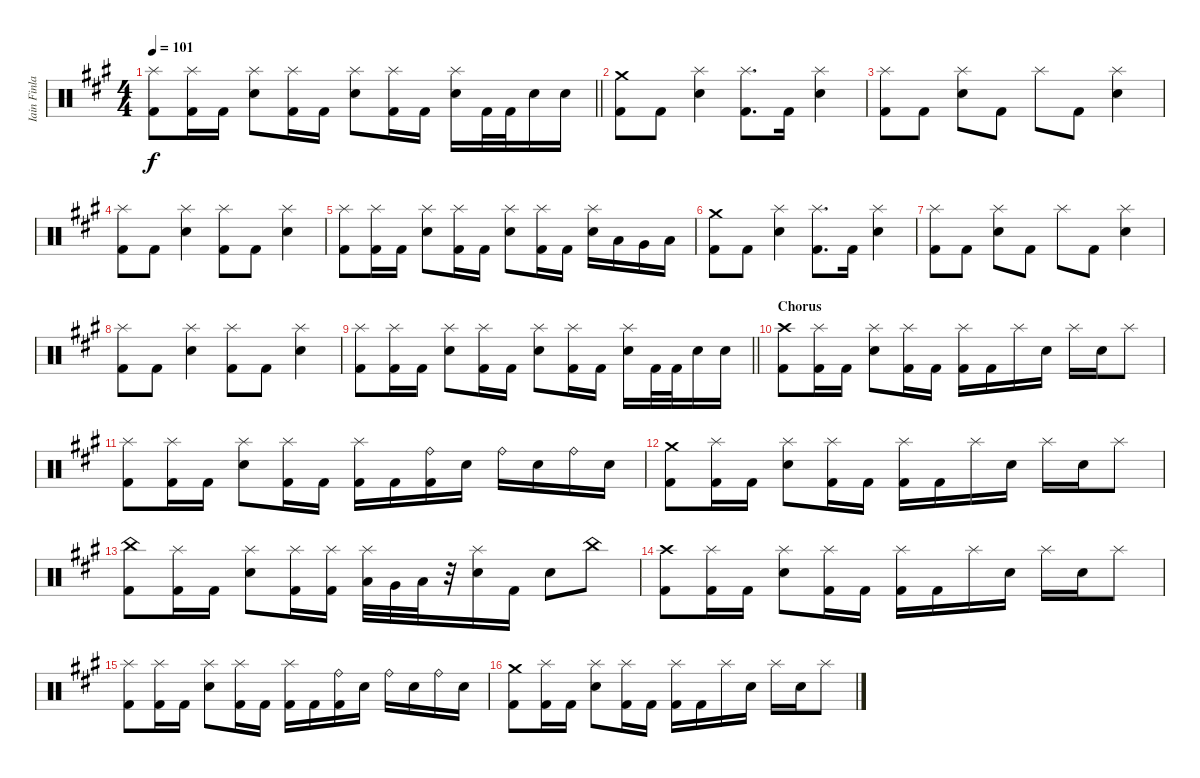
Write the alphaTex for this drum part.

\track ("Iain Finlay" "Iain Finla") {instrument percussion}
\staff {score}
\articulation defaults
\ts (4 4)
\tempo 101
\clef neutral
\barLineRight lightlight
\ks f#minor
("Splash (hit)" "Kick (hit) 2").8{dy f} ("Splash (hit)" "Kick (hit) 2").16 "Kick (hit) 2".16 ("Splash (hit)" "Snare (hit) 2").8 ("Splash (hit)" "Kick (hit) 2").16 "Kick (hit) 2".16 ("Splash (hit)" "Snare (hit) 2").8 ("Splash (hit)" "Kick (hit) 2").16 "Kick (hit) 2".16 ("Splash (hit)" "Snare (hit) 2").16 "Kick (hit) 2".32 "Kick (hit) 2".32 "Snare (hit) 2".16 "Snare (hit) 2".16 |
("Crash medium (hit)" "Kick (hit) 2").8 "Kick (hit) 2".8 ("Splash (hit)" "Snare (hit) 2").4 ("Splash (hit)" "Kick (hit) 2").8{d} "Kick (hit) 2".16 ("Splash (hit)" "Snare (hit) 2").4 |
("Splash (hit)" "Kick (hit) 2").8 "Kick (hit) 2".8 ("Splash (hit)" "Snare (hit) 2").8 "Kick (hit) 2".8 "Splash (hit)".8 "Kick (hit) 2".8 ("Splash (hit)" "Snare (hit) 2").4 |
("Splash (hit)" "Kick (hit) 2").8 "Kick (hit) 2".8 ("Splash (hit)" "Snare (hit) 2").4 ("Splash (hit)" "Kick (hit) 2").8 "Kick (hit) 2".8 ("Splash (hit)" "Snare (hit) 2").4 |
("Splash (hit)" "Kick (hit) 2").8 ("Splash (hit)" "Kick (hit) 2").16 "Kick (hit) 2".16 ("Splash (hit)" "Snare (hit) 2").8 ("Splash (hit)" "Kick (hit) 2").16 "Kick (hit) 2".16 ("Splash (hit)" "Snare (hit) 2").8 ("Splash (hit)" "Kick (hit) 2").16 "Kick (hit) 2".16 ("Splash (hit)" "Snare (hit) 2").16 "Low Tom (hit)".16 "Very Low Tom (hit)".16 "Low Floor Tom (hit)".16 |
("Crash medium (hit)" "Kick (hit) 2").8 "Kick (hit) 2".8 ("Splash (hit)" "Snare (hit) 2").4 ("Splash (hit)" "Kick (hit) 2").8{d} "Kick (hit) 2".16 ("Splash (hit)" "Snare (hit) 2").4 |
("Splash (hit)" "Kick (hit) 2").8 "Kick (hit) 2".8 ("Splash (hit)" "Snare (hit) 2").8 "Kick (hit) 2".8 "Splash (hit)".8 "Kick (hit) 2".8 ("Splash (hit)" "Snare (hit) 2").4 |
("Splash (hit)" "Kick (hit) 2").8 "Kick (hit) 2".8 ("Splash (hit)" "Snare (hit) 2").4 ("Splash (hit)" "Kick (hit) 2").8 "Kick (hit) 2".8 ("Splash (hit)" "Snare (hit) 2").4 |
\barLineRight lightlight
("Splash (hit)" "Kick (hit) 2").8 ("Splash (hit)" "Kick (hit) 2").16 "Kick (hit) 2".16 ("Splash (hit)" "Snare (hit) 2").8 ("Splash (hit)" "Kick (hit) 2").16 "Kick (hit) 2".16 ("Splash (hit)" "Snare (hit) 2").8 ("Splash (hit)" "Kick (hit) 2").16 "Kick (hit) 2".16 ("Splash (hit)" "Snare (hit) 2").16 "Kick (hit) 2".32 "Kick (hit) 2".32 "Snare (hit) 2".16 "Snare (hit) 2".16 |
\section ("" "Chorus")
("Crash high (hit)" "Kick (hit) 2").8 ("Splash (hit)" "Kick (hit) 2").16 "Kick (hit) 2".16 ("Splash (hit)" "Snare (hit) 2").8 ("Splash (hit)" "Kick (hit) 2").16 "Kick (hit) 2".16 ("Splash (hit)" "Kick (hit) 2").16 "Kick (hit) 2".16 "Splash (hit)".16 "Snare (hit) 2".16 "Splash (hit)".16 "Snare (hit) 2".16 "Splash (hit)".8 |
("Splash (hit)" "Kick (hit) 2").8 ("Splash (hit)" "Kick (hit) 2").16 "Kick (hit) 2".16 ("Splash (hit)" "Snare (hit) 2").8 ("Splash (hit)" "Kick (hit) 2").16 "Kick (hit) 2".16 ("Splash (hit)" "Kick (hit) 2").16 "Kick (hit) 2".16 ("Ride (bell)" "Kick (hit) 2").16 "Snare (hit) 2".16 "Ride (bell)".16 "Snare (hit) 2".16 "Ride (bell)".16 "Snare (hit) 2".16 |
("Crash medium (hit)" "Kick (hit) 2").8 ("Splash (hit)" "Kick (hit) 2").16 "Kick (hit) 2".16 ("Splash (hit)" "Snare (hit) 2").8 ("Splash (hit)" "Kick (hit) 2").16 "Kick (hit) 2".16 ("Splash (hit)" "Kick (hit) 2").16 "Kick (hit) 2".16 "Splash (hit)".16 "Snare (hit) 2".16 "Splash (hit)".16 "Snare (hit) 2".16 "Splash (hit)".8 |
("China (hit)" "Kick (hit) 2").8 ("Splash (hit)" "Kick (hit) 2").16 "Kick (hit) 2".16 ("Splash (hit)" "Snare (hit) 2").8 ("Splash (hit)" "Kick (hit) 2").16 ("Splash (hit)" "Kick (hit) 2").16 ("Splash (hit)" "Low Tom (hit)").32 "Very Low Tom (hit)".32 "Low Floor Tom (hit)".32 r.32 ("Splash (hit)" "Snare (hit) 2").16 "Kick (hit) 2".16 "Snare (hit) 2".8 "China (hit)".8 |
("Crash high (hit)" "Kick (hit) 2").8 ("Splash (hit)" "Kick (hit) 2").16 "Kick (hit) 2".16 ("Splash (hit)" "Snare (hit) 2").8 ("Splash (hit)" "Kick (hit) 2").16 "Kick (hit) 2".16 ("Splash (hit)" "Kick (hit) 2").16 "Kick (hit) 2".16 "Splash (hit)".16 "Snare (hit) 2".16 "Splash (hit)".16 "Snare (hit) 2".16 "Splash (hit)".8 |
("Splash (hit)" "Kick (hit) 2").8 ("Splash (hit)" "Kick (hit) 2").16 "Kick (hit) 2".16 ("Splash (hit)" "Snare (hit) 2").8 ("Splash (hit)" "Kick (hit) 2").16 "Kick (hit) 2".16 ("Splash (hit)" "Kick (hit) 2").16 "Kick (hit) 2".16 ("Ride (bell)" "Kick (hit) 2").16 "Snare (hit) 2".16 "Ride (bell)".16 "Snare (hit) 2".16 "Ride (bell)".16 "Snare (hit) 2".16 |
("Crash medium (hit)" "Kick (hit) 2").8 ("Splash (hit)" "Kick (hit) 2").16 "Kick (hit) 2".16 ("Splash (hit)" "Snare (hit) 2").8 ("Splash (hit)" "Kick (hit) 2").16 "Kick (hit) 2".16 ("Splash (hit)" "Kick (hit) 2").16 "Kick (hit) 2".16 "Splash (hit)".16 "Snare (hit) 2".16 "Splash (hit)".16 "Snare (hit) 2".16 "Splash (hit)".8
